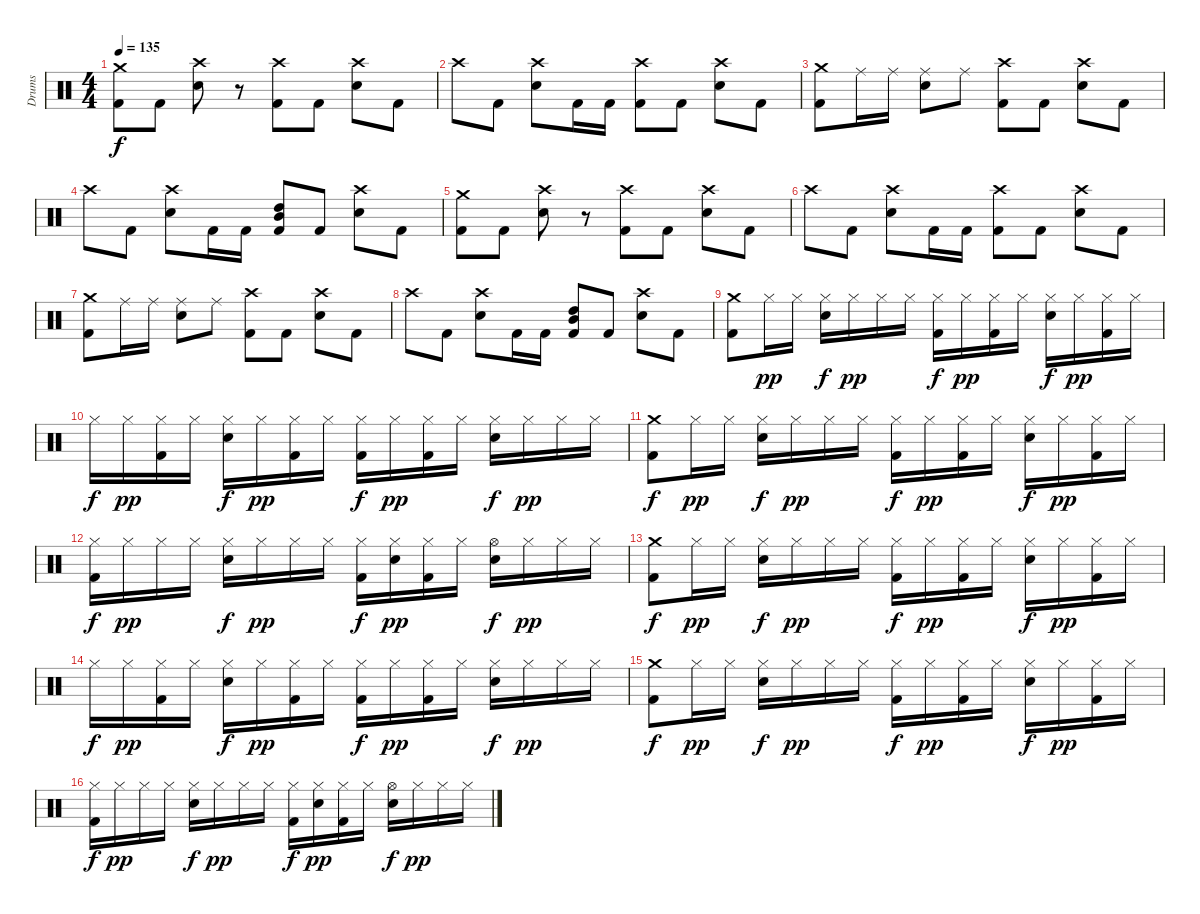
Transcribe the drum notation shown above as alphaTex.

\track ("Drums" "Drums") {instrument percussion}
\staff {score}
\articulation defaults
\ts (4 4)
\tempo 135
\clef neutral
\ks c
("Crash medium (hit)" "Kick (hit) 2").8{dy f} "Kick (hit) 2".8 ("Crash high (hit)" "Electric Snare (hit)").8 r.8 ("Crash high (hit)" "Kick (hit) 2").8 "Kick (hit) 2".8 ("Crash high (hit)" "Electric Snare (hit)").8 "Kick (hit) 2".8 |
"Crash high (hit)".8 "Kick (hit) 2".8 ("Crash high (hit)" "Electric Snare (hit)").8 "Kick (hit) 2".16 "Kick (hit) 2".16 ("Crash high (hit)" "Kick (hit) 2").8 "Kick (hit) 2".8 ("Crash high (hit)" "Electric Snare (hit)").8 "Kick (hit) 2".8 |
("Crash medium (hit)" "Kick (hit) 2").8 "Ride (middle)".16 "Ride (middle)".16 ("Ride (middle)" "Electric Snare (hit)").8 "Ride (middle)".8 ("Crash high (hit)" "Kick (hit) 2").8 "Kick (hit) 2".8 ("Crash high (hit)" "Electric Snare (hit)").8 "Kick (hit) 2".8 |
"Crash high (hit)".8 "Kick (hit) 2".8 ("Crash high (hit)" "Electric Snare (hit)").8 "Kick (hit) 2".16 "Kick (hit) 2".16 ("Mid Tom (hit)" "High Tom (hit)" "Kick (hit) 2").8 "Kick (hit) 2".8 ("Crash high (hit)" "Electric Snare (hit)").8 "Kick (hit) 2".8 |
("Crash medium (hit)" "Kick (hit) 2").8 "Kick (hit) 2".8 ("Crash high (hit)" "Electric Snare (hit)").8 r.8 ("Crash high (hit)" "Kick (hit) 2").8 "Kick (hit) 2".8 ("Crash high (hit)" "Electric Snare (hit)").8 "Kick (hit) 2".8 |
"Crash high (hit)".8 "Kick (hit) 2".8 ("Crash high (hit)" "Electric Snare (hit)").8 "Kick (hit) 2".16 "Kick (hit) 2".16 ("Crash high (hit)" "Kick (hit) 2").8 "Kick (hit) 2".8 ("Crash high (hit)" "Electric Snare (hit)").8 "Kick (hit) 2".8 |
("Crash medium (hit)" "Kick (hit) 2").8 "Ride (middle)".16 "Ride (middle)".16 ("Ride (middle)" "Electric Snare (hit)").8 "Ride (middle)".8 ("Crash high (hit)" "Kick (hit) 2").8 "Kick (hit) 2".8 ("Crash high (hit)" "Electric Snare (hit)").8 "Kick (hit) 2".8 |
"Crash high (hit)".8 "Kick (hit) 2".8 ("Crash high (hit)" "Electric Snare (hit)").8 "Kick (hit) 2".16 "Kick (hit) 2".16 ("Mid Tom (hit)" "High Tom (hit)" "Kick (hit) 2").8 "Kick (hit) 2".8 ("Crash high (hit)" "Electric Snare (hit)").8 "Kick (hit) 2".8 |
("Crash medium (hit)" "Kick (hit) 2").8 "Hi-Hat (closed)".16{dy pp} "Hi-Hat (closed)".16 ("Hi-Hat (closed)" "Electric Snare (hit)").16{dy f} "Hi-Hat (closed)".16{dy pp} "Hi-Hat (closed)".16 "Hi-Hat (closed)".16 ("Hi-Hat (closed)" "Kick (hit) 2").16{dy f} "Hi-Hat (closed)".16{dy pp} ("Hi-Hat (closed)" "Kick (hit) 2").16 "Hi-Hat (closed)".16 ("Hi-Hat (closed)" "Electric Snare (hit)").16{dy f} "Hi-Hat (closed)".16{dy pp} ("Hi-Hat (closed)" "Kick (hit) 2").16 "Hi-Hat (closed)".16 |
"Hi-Hat (closed)".16{dy f} "Hi-Hat (closed)".16{dy pp} ("Hi-Hat (closed)" "Kick (hit) 2").16 "Hi-Hat (closed)".16 ("Hi-Hat (closed)" "Electric Snare (hit)").16{dy f} "Hi-Hat (closed)".16{dy pp} ("Hi-Hat (closed)" "Kick (hit) 2").16 "Hi-Hat (closed)".16 ("Hi-Hat (closed)" "Kick (hit) 2").16{dy f} "Hi-Hat (closed)".16{dy pp} ("Hi-Hat (closed)" "Kick (hit) 2").16 "Hi-Hat (closed)".16 ("Hi-Hat (closed)" "Electric Snare (hit)").16{dy f} "Hi-Hat (closed)".16{dy pp} "Hi-Hat (closed)".16 "Hi-Hat (closed)".16 |
("Crash medium (hit)" "Kick (hit) 2").8{dy f} "Hi-Hat (closed)".16{dy pp} "Hi-Hat (closed)".16 ("Hi-Hat (closed)" "Electric Snare (hit)").16{dy f} "Hi-Hat (closed)".16{dy pp} "Hi-Hat (closed)".16 "Hi-Hat (closed)".16 ("Hi-Hat (closed)" "Kick (hit) 2").16{dy f} "Hi-Hat (closed)".16{dy pp} ("Hi-Hat (closed)" "Kick (hit) 2").16 "Hi-Hat (closed)".16 ("Hi-Hat (closed)" "Electric Snare (hit)").16{dy f} "Hi-Hat (closed)".16{dy pp} ("Hi-Hat (closed)" "Kick (hit) 2").16 "Hi-Hat (closed)".16 |
("Hi-Hat (closed)" "Kick (hit) 2").16{dy f} "Hi-Hat (closed)".16{dy pp} "Hi-Hat (closed)".16 "Hi-Hat (closed)".16 ("Hi-Hat (closed)" "Electric Snare (hit)").16{dy f} "Hi-Hat (closed)".16{dy pp} "Hi-Hat (closed)".16 "Hi-Hat (closed)".16 ("Hi-Hat (closed)" "Kick (hit) 2").16{dy f} ("Hi-Hat (closed)" "Electric Snare (hit)").16{dy pp} ("Hi-Hat (closed)" "Kick (hit) 2").16 "Hi-Hat (closed)".16 ("Hi-Hat (open)" "Electric Snare (hit)").16{dy f} "Hi-Hat (closed)".16{dy pp} "Hi-Hat (closed)".16 "Hi-Hat (closed)".16 |
("Crash medium (hit)" "Kick (hit) 2").8{dy f} "Hi-Hat (closed)".16{dy pp} "Hi-Hat (closed)".16 ("Hi-Hat (closed)" "Electric Snare (hit)").16{dy f} "Hi-Hat (closed)".16{dy pp} "Hi-Hat (closed)".16 "Hi-Hat (closed)".16 ("Hi-Hat (closed)" "Kick (hit) 2").16{dy f} "Hi-Hat (closed)".16{dy pp} ("Hi-Hat (closed)" "Kick (hit) 2").16 "Hi-Hat (closed)".16 ("Hi-Hat (closed)" "Electric Snare (hit)").16{dy f} "Hi-Hat (closed)".16{dy pp} ("Hi-Hat (closed)" "Kick (hit) 2").16 "Hi-Hat (closed)".16 |
"Hi-Hat (closed)".16{dy f} "Hi-Hat (closed)".16{dy pp} ("Hi-Hat (closed)" "Kick (hit) 2").16 "Hi-Hat (closed)".16 ("Hi-Hat (closed)" "Electric Snare (hit)").16{dy f} "Hi-Hat (closed)".16{dy pp} ("Hi-Hat (closed)" "Kick (hit) 2").16 "Hi-Hat (closed)".16 ("Hi-Hat (closed)" "Kick (hit) 2").16{dy f} "Hi-Hat (closed)".16{dy pp} ("Hi-Hat (closed)" "Kick (hit) 2").16 "Hi-Hat (closed)".16 ("Hi-Hat (closed)" "Electric Snare (hit)").16{dy f} "Hi-Hat (closed)".16{dy pp} "Hi-Hat (closed)".16 "Hi-Hat (closed)".16 |
("Crash medium (hit)" "Kick (hit) 2").8{dy f} "Hi-Hat (closed)".16{dy pp} "Hi-Hat (closed)".16 ("Hi-Hat (closed)" "Electric Snare (hit)").16{dy f} "Hi-Hat (closed)".16{dy pp} "Hi-Hat (closed)".16 "Hi-Hat (closed)".16 ("Hi-Hat (closed)" "Kick (hit) 2").16{dy f} "Hi-Hat (closed)".16{dy pp} ("Hi-Hat (closed)" "Kick (hit) 2").16 "Hi-Hat (closed)".16 ("Hi-Hat (closed)" "Electric Snare (hit)").16{dy f} "Hi-Hat (closed)".16{dy pp} ("Hi-Hat (closed)" "Kick (hit) 2").16 "Hi-Hat (closed)".16 |
("Hi-Hat (closed)" "Kick (hit) 2").16{dy f} "Hi-Hat (closed)".16{dy pp} "Hi-Hat (closed)".16 "Hi-Hat (closed)".16 ("Hi-Hat (closed)" "Electric Snare (hit)").16{dy f} "Hi-Hat (closed)".16{dy pp} "Hi-Hat (closed)".16 "Hi-Hat (closed)".16 ("Hi-Hat (closed)" "Kick (hit) 2").16{dy f} ("Hi-Hat (closed)" "Electric Snare (hit)").16{dy pp} ("Hi-Hat (closed)" "Kick (hit) 2").16 "Hi-Hat (closed)".16 ("Hi-Hat (open)" "Electric Snare (hit)").16{dy f} "Hi-Hat (closed)".16{dy pp} "Hi-Hat (closed)".16 "Hi-Hat (closed)".16
